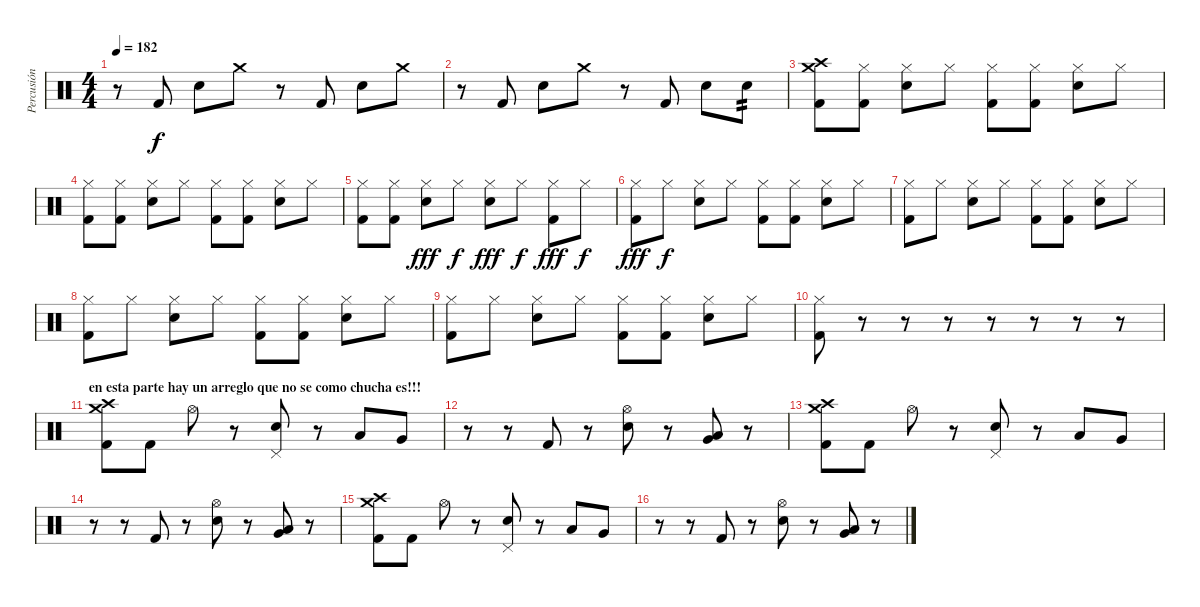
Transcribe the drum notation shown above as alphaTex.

\track ("Percusión Kuliá" "Percusión ") {instrument percussion}
\staff {score}
\articulation defaults
\ts (4 4)
\tempo 182
\clef neutral
\ks c
r.8{dy f} "Kick (hit) 2".8 "Electric Snare (hit)".8 "Crash medium (hit)".8 r.8 "Kick (hit) 2".8 "Electric Snare (hit)".8 "Crash medium (hit)".8 |
r.8 "Kick (hit) 2".8 "Electric Snare (hit)".8 "Crash medium (hit)".8 r.8 "Kick (hit) 2".8 "Electric Snare (hit)".8 "Electric Snare (hit)".8{tp 2} |
("Crash high (hit)" "Crash medium (hit)" "Kick (hit) 2").8 ("Hi-Hat (closed)" "Kick (hit) 2").8 ("Hi-Hat (closed)" "Electric Snare (hit)").8 "Hi-Hat (closed)".8 ("Hi-Hat (closed)" "Kick (hit) 2").8 ("Hi-Hat (closed)" "Kick (hit) 2").8 ("Hi-Hat (closed)" "Electric Snare (hit)").8 "Hi-Hat (closed)".8 |
("Hi-Hat (closed)" "Kick (hit) 2").8 ("Hi-Hat (closed)" "Kick (hit) 2").8 ("Hi-Hat (closed)" "Electric Snare (hit)").8 "Hi-Hat (closed)".8 ("Hi-Hat (closed)" "Kick (hit) 2").8 ("Hi-Hat (closed)" "Kick (hit) 2").8 ("Hi-Hat (closed)" "Electric Snare (hit)").8 "Hi-Hat (closed)".8 |
("Hi-Hat (closed)" "Kick (hit) 2").8 ("Hi-Hat (closed)" "Kick (hit) 2").8 ("Hi-Hat (closed)" "Electric Snare (hit)").8{dy fff} "Hi-Hat (closed)".8{dy f} ("Hi-Hat (closed)" "Electric Snare (hit)").8{dy fff} "Hi-Hat (closed)".8{dy f} ("Hi-Hat (closed)" "Kick (hit) 2").8{dy fff} "Hi-Hat (closed)".8{dy f} |
("Hi-Hat (closed)" "Kick (hit) 2").8{dy fff} "Hi-Hat (closed)".8{dy f} ("Hi-Hat (closed)" "Electric Snare (hit)").8 "Hi-Hat (closed)".8 ("Hi-Hat (closed)" "Kick (hit) 2").8 ("Hi-Hat (closed)" "Kick (hit) 2").8 ("Hi-Hat (closed)" "Electric Snare (hit)").8 "Hi-Hat (closed)".8 |
("Hi-Hat (closed)" "Kick (hit) 2").8 "Hi-Hat (closed)".8 ("Hi-Hat (closed)" "Electric Snare (hit)").8 "Hi-Hat (closed)".8 ("Hi-Hat (closed)" "Kick (hit) 2").8 ("Hi-Hat (closed)" "Kick (hit) 2").8 ("Hi-Hat (closed)" "Electric Snare (hit)").8 "Hi-Hat (closed)".8 |
("Hi-Hat (closed)" "Kick (hit) 2").8 "Hi-Hat (closed)".8 ("Hi-Hat (closed)" "Electric Snare (hit)").8 "Hi-Hat (closed)".8 ("Hi-Hat (closed)" "Kick (hit) 2").8 ("Hi-Hat (closed)" "Kick (hit) 2").8 ("Hi-Hat (closed)" "Electric Snare (hit)").8 "Hi-Hat (closed)".8 |
("Hi-Hat (closed)" "Kick (hit) 2").8 "Hi-Hat (closed)".8 ("Hi-Hat (closed)" "Electric Snare (hit)").8 "Hi-Hat (closed)".8 ("Hi-Hat (closed)" "Kick (hit) 2").8 ("Hi-Hat (closed)" "Kick (hit) 2").8 ("Hi-Hat (closed)" "Electric Snare (hit)").8 "Hi-Hat (closed)".8 |
("Hi-Hat (closed)" "Kick (hit) 2").8 r.8 r.8 r.8 r.8 r.8 r.8 r.8 |
\section ("" "en esta parte hay un arreglo que no se como chucha es!!!")
("Crash high (hit)" "Crash medium (hit)" "Kick (hit) 2").8 "Kick (hit) 2".8 "Hi-Hat (open)".8 r.8 ("Pedal Hi-Hat (hit)" "Electric Snare (hit)").8 r.8 "Low Tom (hit)".8 "Very Low Tom (hit)".8 |
r.8 r.8 "Kick (hit) 2".8 r.8 ("Hi-Hat (open)" "Electric Snare (hit)").8 r.8 ("Low Tom (hit)" "Very Low Tom (hit)").8 r.8 |
("Crash high (hit)" "Crash medium (hit)" "Kick (hit) 2").8 "Kick (hit) 2".8 "Hi-Hat (open)".8 r.8 ("Pedal Hi-Hat (hit)" "Electric Snare (hit)").8 r.8 "Low Tom (hit)".8 "Very Low Tom (hit)".8 |
r.8 r.8 "Kick (hit) 2".8 r.8 ("Hi-Hat (open)" "Electric Snare (hit)").8 r.8 ("Low Tom (hit)" "Very Low Tom (hit)").8 r.8 |
("Crash high (hit)" "Crash medium (hit)" "Kick (hit) 2").8 "Kick (hit) 2".8 "Hi-Hat (open)".8 r.8 ("Pedal Hi-Hat (hit)" "Electric Snare (hit)").8 r.8 "Low Tom (hit)".8 "Very Low Tom (hit)".8 |
r.8 r.8 "Kick (hit) 2".8 r.8 ("Hi-Hat (open)" "Electric Snare (hit)").8 r.8 ("Low Tom (hit)" "Very Low Tom (hit)").8 r.8
